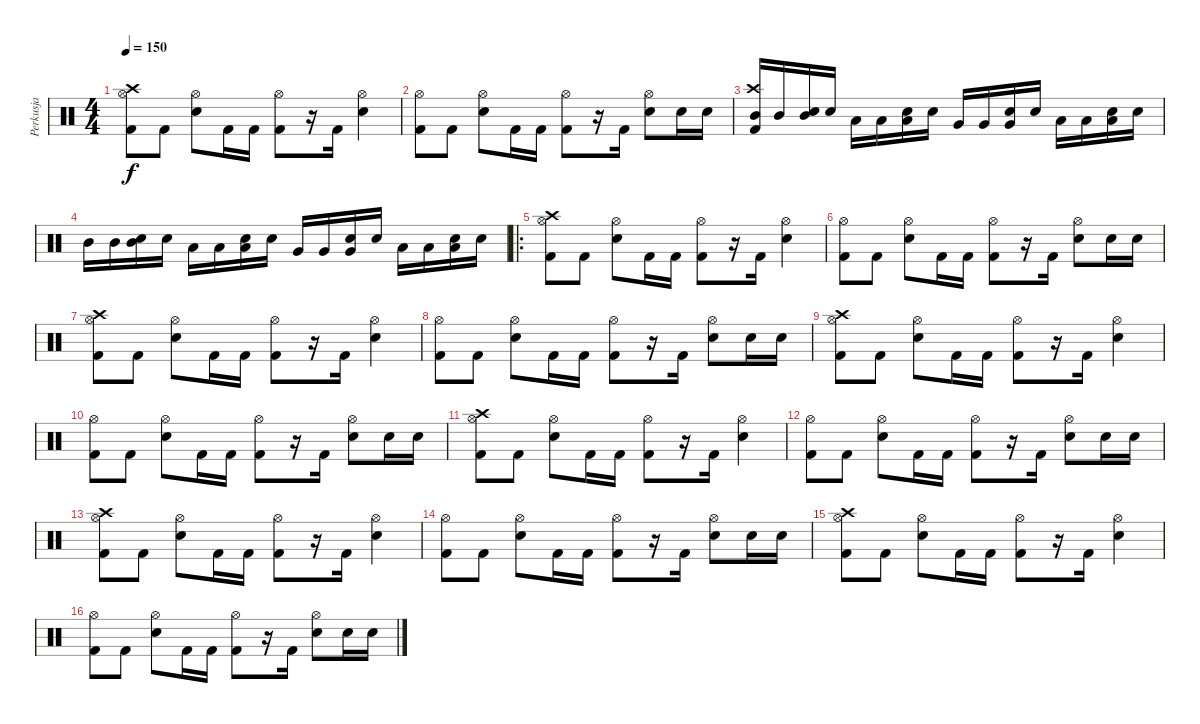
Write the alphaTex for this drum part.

\track ("Perkusja" "Perkusja") {instrument percussion}
\staff {score}
\articulation defaults
\ts (4 4)
\tempo 150
\clef neutral
\ks c
("Kick (hit) 2" "Hi-Hat (open)" "Crash high (hit)").8{dy f} "Kick (hit) 2".8 ("Electric Snare (hit)" "Hi-Hat (open)").8 "Kick (hit) 2".16 "Kick (hit) 2".16 ("Kick (hit) 2" "Hi-Hat (open)").8 r.16 "Kick (hit) 2".16 ("Electric Snare (hit)" "Hi-Hat (open)").4 |
("Kick (hit) 2" "Hi-Hat (open)").8 "Kick (hit) 2".8 ("Electric Snare (hit)" "Hi-Hat (open)").8 "Kick (hit) 2".16 "Kick (hit) 2".16 ("Kick (hit) 2" "Hi-Hat (open)").8 r.16 "Kick (hit) 2".16 ("Electric Snare (hit)" "Hi-Hat (open)").8 "Electric Snare (hit)".16 "Electric Snare (hit)".16 |
("Kick (hit) 2" "Crash high (hit)" "Mid Tom (hit)").16 "Mid Tom (hit)".16 ("Mid Tom (hit)" "Electric Snare (hit)").16 "Electric Snare (hit)".16 "Low Tom (hit)".16 "Low Tom (hit)".16 ("Low Tom (hit)" "Electric Snare (hit)").16 "Electric Snare (hit)".16 "Very Low Tom (hit)".16 "Very Low Tom (hit)".16 ("Very Low Tom (hit)" "Electric Snare (hit)").16 "Electric Snare (hit)".16 "Low Floor Tom (hit)".16 "Low Floor Tom (hit)".16 ("Low Floor Tom (hit)" "Electric Snare (hit)").16 "Electric Snare (hit)".16 |
"Mid Tom (hit)".16 "Mid Tom (hit)".16 ("Mid Tom (hit)" "Electric Snare (hit)").16 "Electric Snare (hit)".16 "Low Tom (hit)".16 "Low Tom (hit)".16 ("Low Tom (hit)" "Electric Snare (hit)").16 "Electric Snare (hit)".16 "Very Low Tom (hit)".16 "Very Low Tom (hit)".16 ("Very Low Tom (hit)" "Electric Snare (hit)").16 "Electric Snare (hit)".16 "Low Floor Tom (hit)".16 "Low Floor Tom (hit)".16 ("Low Floor Tom (hit)" "Electric Snare (hit)").16 "Electric Snare (hit)".16 |
\ro
("Kick (hit) 2" "Hi-Hat (open)" "Crash high (hit)").8 "Kick (hit) 2".8 ("Electric Snare (hit)" "Hi-Hat (open)").8 "Kick (hit) 2".16 "Kick (hit) 2".16 ("Kick (hit) 2" "Hi-Hat (open)").8 r.16 "Kick (hit) 2".16 ("Electric Snare (hit)" "Hi-Hat (open)").4 |
("Kick (hit) 2" "Hi-Hat (open)").8 "Kick (hit) 2".8 ("Electric Snare (hit)" "Hi-Hat (open)").8 "Kick (hit) 2".16 "Kick (hit) 2".16 ("Kick (hit) 2" "Hi-Hat (open)").8 r.16 "Kick (hit) 2".16 ("Electric Snare (hit)" "Hi-Hat (open)").8 "Electric Snare (hit)".16 "Electric Snare (hit)".16 |
("Kick (hit) 2" "Hi-Hat (open)" "Crash high (hit)").8 "Kick (hit) 2".8 ("Electric Snare (hit)" "Hi-Hat (open)").8 "Kick (hit) 2".16 "Kick (hit) 2".16 ("Kick (hit) 2" "Hi-Hat (open)").8 r.16 "Kick (hit) 2".16 ("Electric Snare (hit)" "Hi-Hat (open)").4 |
("Kick (hit) 2" "Hi-Hat (open)").8 "Kick (hit) 2".8 ("Electric Snare (hit)" "Hi-Hat (open)").8 "Kick (hit) 2".16 "Kick (hit) 2".16 ("Kick (hit) 2" "Hi-Hat (open)").8 r.16 "Kick (hit) 2".16 ("Electric Snare (hit)" "Hi-Hat (open)").8 "Electric Snare (hit)".16 "Electric Snare (hit)".16 |
("Kick (hit) 2" "Hi-Hat (open)" "Crash high (hit)").8 "Kick (hit) 2".8 ("Electric Snare (hit)" "Hi-Hat (open)").8 "Kick (hit) 2".16 "Kick (hit) 2".16 ("Kick (hit) 2" "Hi-Hat (open)").8 r.16 "Kick (hit) 2".16 ("Electric Snare (hit)" "Hi-Hat (open)").4 |
("Kick (hit) 2" "Hi-Hat (open)").8 "Kick (hit) 2".8 ("Electric Snare (hit)" "Hi-Hat (open)").8 "Kick (hit) 2".16 "Kick (hit) 2".16 ("Kick (hit) 2" "Hi-Hat (open)").8 r.16 "Kick (hit) 2".16 ("Electric Snare (hit)" "Hi-Hat (open)").8 "Electric Snare (hit)".16 "Electric Snare (hit)".16 |
("Kick (hit) 2" "Hi-Hat (open)" "Crash high (hit)").8 "Kick (hit) 2".8 ("Electric Snare (hit)" "Hi-Hat (open)").8 "Kick (hit) 2".16 "Kick (hit) 2".16 ("Kick (hit) 2" "Hi-Hat (open)").8 r.16 "Kick (hit) 2".16 ("Electric Snare (hit)" "Hi-Hat (open)").4 |
("Kick (hit) 2" "Hi-Hat (open)").8 "Kick (hit) 2".8 ("Electric Snare (hit)" "Hi-Hat (open)").8 "Kick (hit) 2".16 "Kick (hit) 2".16 ("Kick (hit) 2" "Hi-Hat (open)").8 r.16 "Kick (hit) 2".16 ("Electric Snare (hit)" "Hi-Hat (open)").8 "Electric Snare (hit)".16 "Electric Snare (hit)".16 |
("Kick (hit) 2" "Hi-Hat (open)" "Crash high (hit)").8 "Kick (hit) 2".8 ("Electric Snare (hit)" "Hi-Hat (open)").8 "Kick (hit) 2".16 "Kick (hit) 2".16 ("Kick (hit) 2" "Hi-Hat (open)").8 r.16 "Kick (hit) 2".16 ("Electric Snare (hit)" "Hi-Hat (open)").4 |
("Kick (hit) 2" "Hi-Hat (open)").8 "Kick (hit) 2".8 ("Electric Snare (hit)" "Hi-Hat (open)").8 "Kick (hit) 2".16 "Kick (hit) 2".16 ("Kick (hit) 2" "Hi-Hat (open)").8 r.16 "Kick (hit) 2".16 ("Electric Snare (hit)" "Hi-Hat (open)").8 "Electric Snare (hit)".16 "Electric Snare (hit)".16 |
("Kick (hit) 2" "Hi-Hat (open)" "Crash high (hit)").8 "Kick (hit) 2".8 ("Electric Snare (hit)" "Hi-Hat (open)").8 "Kick (hit) 2".16 "Kick (hit) 2".16 ("Kick (hit) 2" "Hi-Hat (open)").8 r.16 "Kick (hit) 2".16 ("Electric Snare (hit)" "Hi-Hat (open)").4 |
("Kick (hit) 2" "Hi-Hat (open)").8 "Kick (hit) 2".8 ("Electric Snare (hit)" "Hi-Hat (open)").8 "Kick (hit) 2".16 "Kick (hit) 2".16 ("Kick (hit) 2" "Hi-Hat (open)").8 r.16 "Kick (hit) 2".16 ("Electric Snare (hit)" "Hi-Hat (open)").8 "Electric Snare (hit)".16 "Electric Snare (hit)".16
